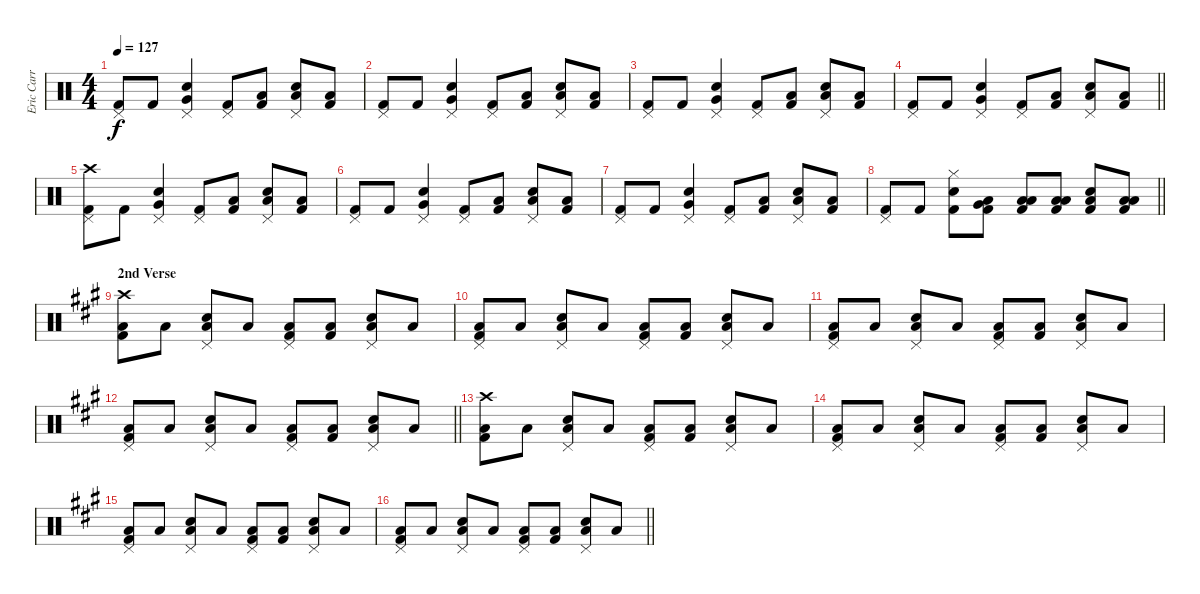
\track ("Eric Carr (Drums)" "Eric Carr ") {instrument percussion}
\staff {score}
\articulation defaults
\ts (4 4)
\tempo 127
\clef neutral
\ks c
("Pedal Hi-Hat (hit)" "Kick (hit) 2").8{dy f} "Kick (hit) 2".8 ("Pedal Hi-Hat (hit)" "Very Low Tom (hit)" "Snare (hit) 2").4 ("Pedal Hi-Hat (hit)" "Kick (hit) 2").8 ("Low Tom (hit)" "Kick (hit) 2").8 ("Pedal Hi-Hat (hit)" "Low Floor Tom (hit)" "Snare (hit) 2").8 ("Low Tom (hit)" "Kick (hit) 2").8 |
("Pedal Hi-Hat (hit)" "Kick (hit) 2").8 "Kick (hit) 2".8 ("Pedal Hi-Hat (hit)" "Very Low Tom (hit)" "Snare (hit) 2").4 ("Pedal Hi-Hat (hit)" "Kick (hit) 2").8 ("Low Tom (hit)" "Kick (hit) 2").8 ("Pedal Hi-Hat (hit)" "Low Floor Tom (hit)" "Snare (hit) 2").8 ("Low Tom (hit)" "Kick (hit) 2").8 |
("Pedal Hi-Hat (hit)" "Kick (hit) 2").8 "Kick (hit) 2".8 ("Pedal Hi-Hat (hit)" "Very Low Tom (hit)" "Snare (hit) 2").4 ("Pedal Hi-Hat (hit)" "Kick (hit) 2").8 ("Low Tom (hit)" "Kick (hit) 2").8 ("Pedal Hi-Hat (hit)" "Low Floor Tom (hit)" "Snare (hit) 2").8 ("Low Tom (hit)" "Kick (hit) 2").8 |
\barLineRight lightlight
("Pedal Hi-Hat (hit)" "Kick (hit) 2").8 "Kick (hit) 2".8 ("Pedal Hi-Hat (hit)" "Very Low Tom (hit)" "Snare (hit) 2").4 ("Pedal Hi-Hat (hit)" "Kick (hit) 2").8 ("Low Tom (hit)" "Kick (hit) 2").8 ("Pedal Hi-Hat (hit)" "Low Floor Tom (hit)" "Snare (hit) 2").8 ("Low Tom (hit)" "Kick (hit) 2").8 |
("Crash high (hit)" "Pedal Hi-Hat (hit)" "Kick (hit) 2").8 "Kick (hit) 2".8 ("Pedal Hi-Hat (hit)" "Very Low Tom (hit)" "Snare (hit) 2").4 ("Pedal Hi-Hat (hit)" "Kick (hit) 2").8 ("Low Tom (hit)" "Kick (hit) 2").8 ("Pedal Hi-Hat (hit)" "Low Floor Tom (hit)" "Snare (hit) 2").8 ("Low Tom (hit)" "Kick (hit) 2").8 |
("Pedal Hi-Hat (hit)" "Kick (hit) 2").8 "Kick (hit) 2".8 ("Pedal Hi-Hat (hit)" "Very Low Tom (hit)" "Snare (hit) 2").4 ("Pedal Hi-Hat (hit)" "Kick (hit) 2").8 ("Low Tom (hit)" "Kick (hit) 2").8 ("Pedal Hi-Hat (hit)" "Low Floor Tom (hit)" "Snare (hit) 2").8 ("Low Tom (hit)" "Kick (hit) 2").8 |
("Pedal Hi-Hat (hit)" "Kick (hit) 2").8 "Kick (hit) 2".8 ("Pedal Hi-Hat (hit)" "Very Low Tom (hit)" "Snare (hit) 2").4 ("Pedal Hi-Hat (hit)" "Kick (hit) 2").8 ("Low Tom (hit)" "Kick (hit) 2").8 ("Pedal Hi-Hat (hit)" "Low Floor Tom (hit)" "Snare (hit) 2").8 ("Low Tom (hit)" "Kick (hit) 2").8 |
\barLineRight lightlight
("Pedal Hi-Hat (hit)" "Kick (hit) 2").8 "Kick (hit) 2".8 ("Hi-Hat (closed)" "Snare (hit) 2" "Kick (hit) 2").8 ("Very Low Tom (hit)" "Low Floor Tom (hit)" "Kick (hit) 2").8 ("Low Tom (hit)" "Low Floor Tom (hit)" "Kick (hit) 2").8 ("Low Tom (hit)" "Low Tom (hit)" "Kick (hit) 2").8 ("Low Floor Tom (hit)" "Snare (hit) 2" "Kick (hit) 2").8 ("Low Tom (hit)" "Low Tom (hit)" "Kick (hit) 2").8 |
\section ("" "2nd Verse")
\ks a
("Crash high (hit)" "Low Tom (hit)" "Kick (hit) 2").8 "Low Tom (hit)".8 ("Pedal Hi-Hat (hit)" "Low Tom (hit)" "Snare (hit) 2").8 "Low Tom (hit)".8 ("Pedal Hi-Hat (hit)" "Low Tom (hit)" "Kick (hit) 2").8 ("Low Tom (hit)" "Kick (hit) 2").8 ("Pedal Hi-Hat (hit)" "Low Tom (hit)" "Snare (hit) 2").8 "Low Tom (hit)".8 |
("Pedal Hi-Hat (hit)" "Low Tom (hit)" "Kick (hit) 2").8 "Low Tom (hit)".8 ("Pedal Hi-Hat (hit)" "Low Tom (hit)" "Snare (hit) 2").8 "Low Tom (hit)".8 ("Pedal Hi-Hat (hit)" "Low Tom (hit)" "Kick (hit) 2").8 ("Low Tom (hit)" "Kick (hit) 2").8 ("Pedal Hi-Hat (hit)" "Low Tom (hit)" "Snare (hit) 2").8 "Low Tom (hit)".8 |
("Pedal Hi-Hat (hit)" "Low Tom (hit)" "Kick (hit) 2").8 "Low Tom (hit)".8 ("Pedal Hi-Hat (hit)" "Low Tom (hit)" "Snare (hit) 2").8 "Low Tom (hit)".8 ("Pedal Hi-Hat (hit)" "Low Tom (hit)" "Kick (hit) 2").8 ("Low Tom (hit)" "Kick (hit) 2").8 ("Pedal Hi-Hat (hit)" "Low Tom (hit)" "Snare (hit) 2").8 "Low Tom (hit)".8 |
\barLineRight lightlight
("Pedal Hi-Hat (hit)" "Low Tom (hit)" "Kick (hit) 2").8 "Low Tom (hit)".8 ("Pedal Hi-Hat (hit)" "Low Tom (hit)" "Snare (hit) 2").8 "Low Tom (hit)".8 ("Pedal Hi-Hat (hit)" "Low Tom (hit)" "Kick (hit) 2").8 ("Low Tom (hit)" "Kick (hit) 2").8 ("Pedal Hi-Hat (hit)" "Low Tom (hit)" "Snare (hit) 2").8 "Low Tom (hit)".8 |
("Crash high (hit)" "Low Tom (hit)" "Kick (hit) 2").8 "Low Tom (hit)".8 ("Pedal Hi-Hat (hit)" "Low Tom (hit)" "Snare (hit) 2").8 "Low Tom (hit)".8 ("Pedal Hi-Hat (hit)" "Low Tom (hit)" "Kick (hit) 2").8 ("Low Tom (hit)" "Kick (hit) 2").8 ("Pedal Hi-Hat (hit)" "Low Tom (hit)" "Snare (hit) 2").8 "Low Tom (hit)".8 |
("Pedal Hi-Hat (hit)" "Low Tom (hit)" "Kick (hit) 2").8 "Low Tom (hit)".8 ("Pedal Hi-Hat (hit)" "Low Tom (hit)" "Snare (hit) 2").8 "Low Tom (hit)".8 ("Pedal Hi-Hat (hit)" "Low Tom (hit)" "Kick (hit) 2").8 ("Low Tom (hit)" "Kick (hit) 2").8 ("Pedal Hi-Hat (hit)" "Low Tom (hit)" "Snare (hit) 2").8 "Low Tom (hit)".8 |
("Pedal Hi-Hat (hit)" "Low Tom (hit)" "Kick (hit) 2").8 "Low Tom (hit)".8 ("Pedal Hi-Hat (hit)" "Low Tom (hit)" "Snare (hit) 2").8 "Low Tom (hit)".8 ("Pedal Hi-Hat (hit)" "Low Tom (hit)" "Kick (hit) 2").8 ("Low Tom (hit)" "Kick (hit) 2").8 ("Pedal Hi-Hat (hit)" "Low Tom (hit)" "Snare (hit) 2").8 "Low Tom (hit)".8 |
\barLineRight lightlight
("Pedal Hi-Hat (hit)" "Low Tom (hit)" "Kick (hit) 2").8 "Low Tom (hit)".8 ("Pedal Hi-Hat (hit)" "Low Tom (hit)" "Snare (hit) 2").8 "Low Tom (hit)".8 ("Pedal Hi-Hat (hit)" "Low Tom (hit)" "Kick (hit) 2").8 ("Low Tom (hit)" "Kick (hit) 2").8 ("Pedal Hi-Hat (hit)" "Low Tom (hit)" "Snare (hit) 2").8 "Low Tom (hit)".8
